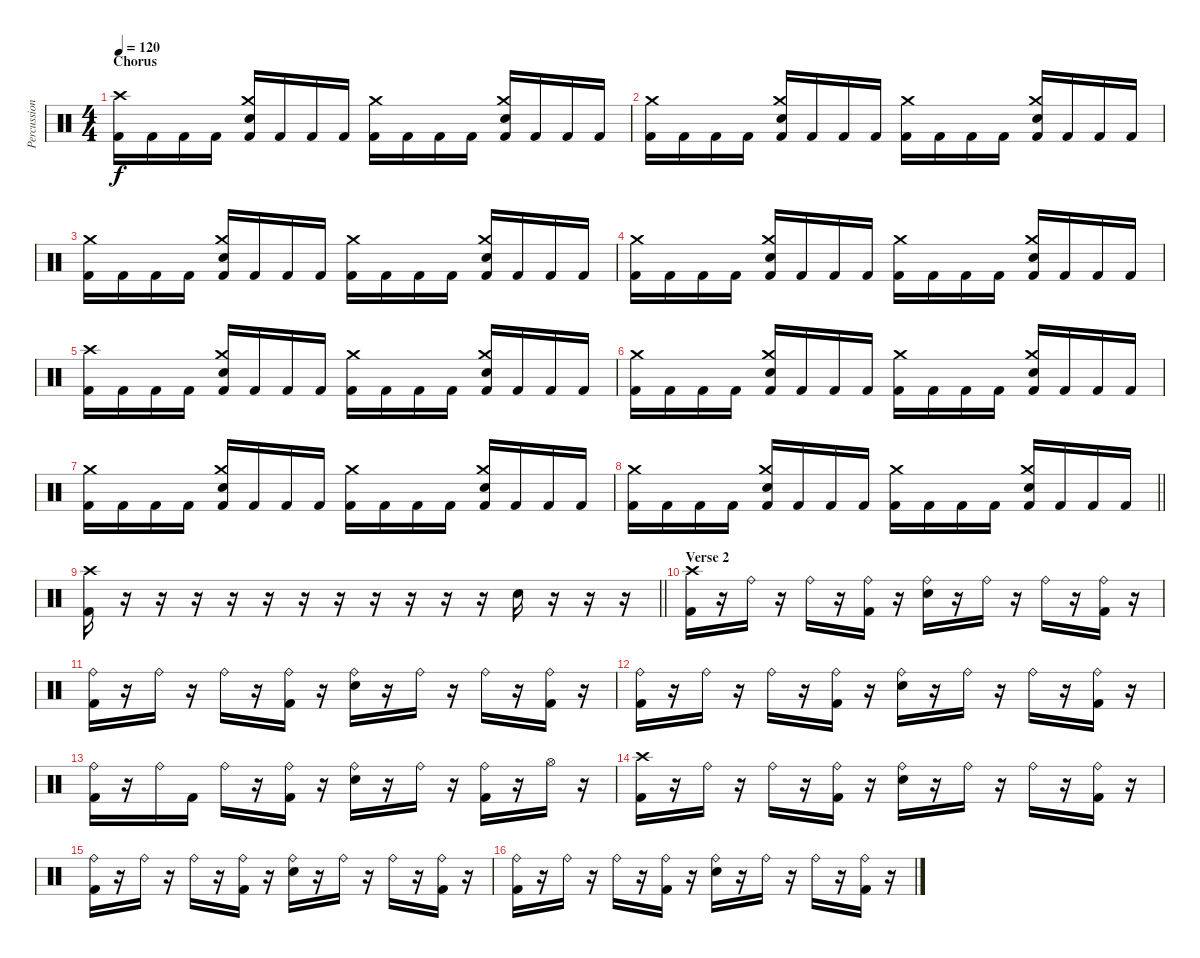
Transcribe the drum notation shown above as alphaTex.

\track ("Percussion" "Percussion") {instrument percussion}
\staff {score}
\articulation defaults
\ts (4 4)
\section ("" "Chorus")
\tempo 120
\clef neutral
\ks c
("Crash high (hit)" "Kick (hit) 2").16{dy f} "Kick (hit) 2".16 "Kick (hit) 2".16 "Kick (hit) 2".16 ("Crash medium (hit)" "Electric Snare (hit)" "Kick (hit) 2").16 "Kick (hit) 2".16 "Kick (hit) 2".16 "Kick (hit) 2".16 ("Crash medium (hit)" "Kick (hit) 2").16 "Kick (hit) 2".16 "Kick (hit) 2".16 "Kick (hit) 2".16 ("Crash medium (hit)" "Electric Snare (hit)" "Kick (hit) 2").16 "Kick (hit) 2".16 "Kick (hit) 2".16 "Kick (hit) 2".16 |
("Crash medium (hit)" "Kick (hit) 2").16 "Kick (hit) 2".16 "Kick (hit) 2".16 "Kick (hit) 2".16 ("Crash medium (hit)" "Electric Snare (hit)" "Kick (hit) 2").16 "Kick (hit) 2".16 "Kick (hit) 2".16 "Kick (hit) 2".16 ("Crash medium (hit)" "Kick (hit) 2").16 "Kick (hit) 2".16 "Kick (hit) 2".16 "Kick (hit) 2".16 ("Crash medium (hit)" "Electric Snare (hit)" "Kick (hit) 2").16 "Kick (hit) 2".16 "Kick (hit) 2".16 "Kick (hit) 2".16 |
("Crash medium (hit)" "Kick (hit) 2").16 "Kick (hit) 2".16 "Kick (hit) 2".16 "Kick (hit) 2".16 ("Crash medium (hit)" "Electric Snare (hit)" "Kick (hit) 2").16 "Kick (hit) 2".16 "Kick (hit) 2".16 "Kick (hit) 2".16 ("Crash medium (hit)" "Kick (hit) 2").16 "Kick (hit) 2".16 "Kick (hit) 2".16 "Kick (hit) 2".16 ("Crash medium (hit)" "Electric Snare (hit)" "Kick (hit) 2").16 "Kick (hit) 2".16 "Kick (hit) 2".16 "Kick (hit) 2".16 |
("Crash medium (hit)" "Kick (hit) 2").16 "Kick (hit) 2".16 "Kick (hit) 2".16 "Kick (hit) 2".16 ("Crash medium (hit)" "Electric Snare (hit)" "Kick (hit) 2").16 "Kick (hit) 2".16 "Kick (hit) 2".16 "Kick (hit) 2".16 ("Crash medium (hit)" "Kick (hit) 2").16 "Kick (hit) 2".16 "Kick (hit) 2".16 "Kick (hit) 2".16 ("Crash medium (hit)" "Electric Snare (hit)" "Kick (hit) 2").16 "Kick (hit) 2".16 "Kick (hit) 2".16 "Kick (hit) 2".16 |
("Crash high (hit)" "Kick (hit) 2").16 "Kick (hit) 2".16 "Kick (hit) 2".16 "Kick (hit) 2".16 ("Crash medium (hit)" "Electric Snare (hit)" "Kick (hit) 2").16 "Kick (hit) 2".16 "Kick (hit) 2".16 "Kick (hit) 2".16 ("Crash medium (hit)" "Kick (hit) 2").16 "Kick (hit) 2".16 "Kick (hit) 2".16 "Kick (hit) 2".16 ("Crash medium (hit)" "Electric Snare (hit)" "Kick (hit) 2").16 "Kick (hit) 2".16 "Kick (hit) 2".16 "Kick (hit) 2".16 |
("Crash medium (hit)" "Kick (hit) 2").16 "Kick (hit) 2".16 "Kick (hit) 2".16 "Kick (hit) 2".16 ("Crash medium (hit)" "Electric Snare (hit)" "Kick (hit) 2").16 "Kick (hit) 2".16 "Kick (hit) 2".16 "Kick (hit) 2".16 ("Crash medium (hit)" "Kick (hit) 2").16 "Kick (hit) 2".16 "Kick (hit) 2".16 "Kick (hit) 2".16 ("Crash medium (hit)" "Electric Snare (hit)" "Kick (hit) 2").16 "Kick (hit) 2".16 "Kick (hit) 2".16 "Kick (hit) 2".16 |
("Crash medium (hit)" "Kick (hit) 2").16 "Kick (hit) 2".16 "Kick (hit) 2".16 "Kick (hit) 2".16 ("Crash medium (hit)" "Electric Snare (hit)" "Kick (hit) 2").16 "Kick (hit) 2".16 "Kick (hit) 2".16 "Kick (hit) 2".16 ("Crash medium (hit)" "Kick (hit) 2").16 "Kick (hit) 2".16 "Kick (hit) 2".16 "Kick (hit) 2".16 ("Crash medium (hit)" "Electric Snare (hit)" "Kick (hit) 2").16 "Kick (hit) 2".16 "Kick (hit) 2".16 "Kick (hit) 2".16 |
\barLineRight lightlight
("Crash medium (hit)" "Kick (hit) 2").16 "Kick (hit) 2".16 "Kick (hit) 2".16 "Kick (hit) 2".16 ("Crash medium (hit)" "Electric Snare (hit)" "Kick (hit) 2").16 "Kick (hit) 2".16 "Kick (hit) 2".16 "Kick (hit) 2".16 ("Crash medium (hit)" "Kick (hit) 2").16 "Kick (hit) 2".16 "Kick (hit) 2".16 "Kick (hit) 2".16 ("Crash medium (hit)" "Electric Snare (hit)" "Kick (hit) 2").16 "Kick (hit) 2".16 "Kick (hit) 2".16 "Kick (hit) 2".16 |
\barLineRight lightlight
("Crash high (hit)" "Kick (hit) 2").16 r.16 r.16 r.16 r.16 r.16 r.16 r.16 r.16 r.16 r.16 r.16 "Electric Snare (hit)".16 r.16 r.16 r.16 |
\section ("" "Verse 2")
("Crash high (hit)" "Kick (hit) 2").16 r.16 "Ride (bell)".16 r.16 "Ride (bell)".16 r.16 ("Ride (bell)" "Kick (hit) 2").16 r.16 ("Ride (bell)" "Electric Snare (hit)").16 r.16 "Ride (bell)".16 r.16 "Ride (bell)".16 r.16 ("Ride (bell)" "Kick (hit) 2").16 r.16 |
("Ride (bell)" "Kick (hit) 2").16 r.16 "Ride (bell)".16 r.16 "Ride (bell)".16 r.16 ("Ride (bell)" "Kick (hit) 2").16 r.16 ("Ride (bell)" "Electric Snare (hit)").16 r.16 "Ride (bell)".16 r.16 "Ride (bell)".16 r.16 ("Ride (bell)" "Kick (hit) 2").16 r.16 |
("Ride (bell)" "Kick (hit) 2").16 r.16 "Ride (bell)".16 r.16 "Ride (bell)".16 r.16 ("Ride (bell)" "Kick (hit) 2").16 r.16 ("Ride (bell)" "Electric Snare (hit)").16 r.16 "Ride (bell)".16 r.16 "Ride (bell)".16 r.16 ("Ride (bell)" "Kick (hit) 2").16 r.16 |
("Ride (bell)" "Kick (hit) 2").16 r.16 "Ride (bell)".16 "Kick (hit) 2".16 "Ride (bell)".16 r.16 ("Ride (bell)" "Kick (hit) 2").16 r.16 ("Ride (bell)" "Electric Snare (hit)").16 r.16 "Ride (bell)".16 r.16 ("Ride (bell)" "Kick (hit) 2").16 r.16 "Hi-Hat (open)".16 r.16 |
("Crash high (hit)" "Kick (hit) 2").16 r.16 "Ride (bell)".16 r.16 "Ride (bell)".16 r.16 ("Ride (bell)" "Kick (hit) 2").16 r.16 ("Ride (bell)" "Electric Snare (hit)").16 r.16 "Ride (bell)".16 r.16 "Ride (bell)".16 r.16 ("Ride (bell)" "Kick (hit) 2").16 r.16 |
("Ride (bell)" "Kick (hit) 2").16 r.16 "Ride (bell)".16 r.16 "Ride (bell)".16 r.16 ("Ride (bell)" "Kick (hit) 2").16 r.16 ("Ride (bell)" "Electric Snare (hit)").16 r.16 "Ride (bell)".16 r.16 "Ride (bell)".16 r.16 ("Ride (bell)" "Kick (hit) 2").16 r.16 |
("Ride (bell)" "Kick (hit) 2").16 r.16 "Ride (bell)".16 r.16 "Ride (bell)".16 r.16 ("Ride (bell)" "Kick (hit) 2").16 r.16 ("Ride (bell)" "Electric Snare (hit)").16 r.16 "Ride (bell)".16 r.16 "Ride (bell)".16 r.16 ("Ride (bell)" "Kick (hit) 2").16 r.16
